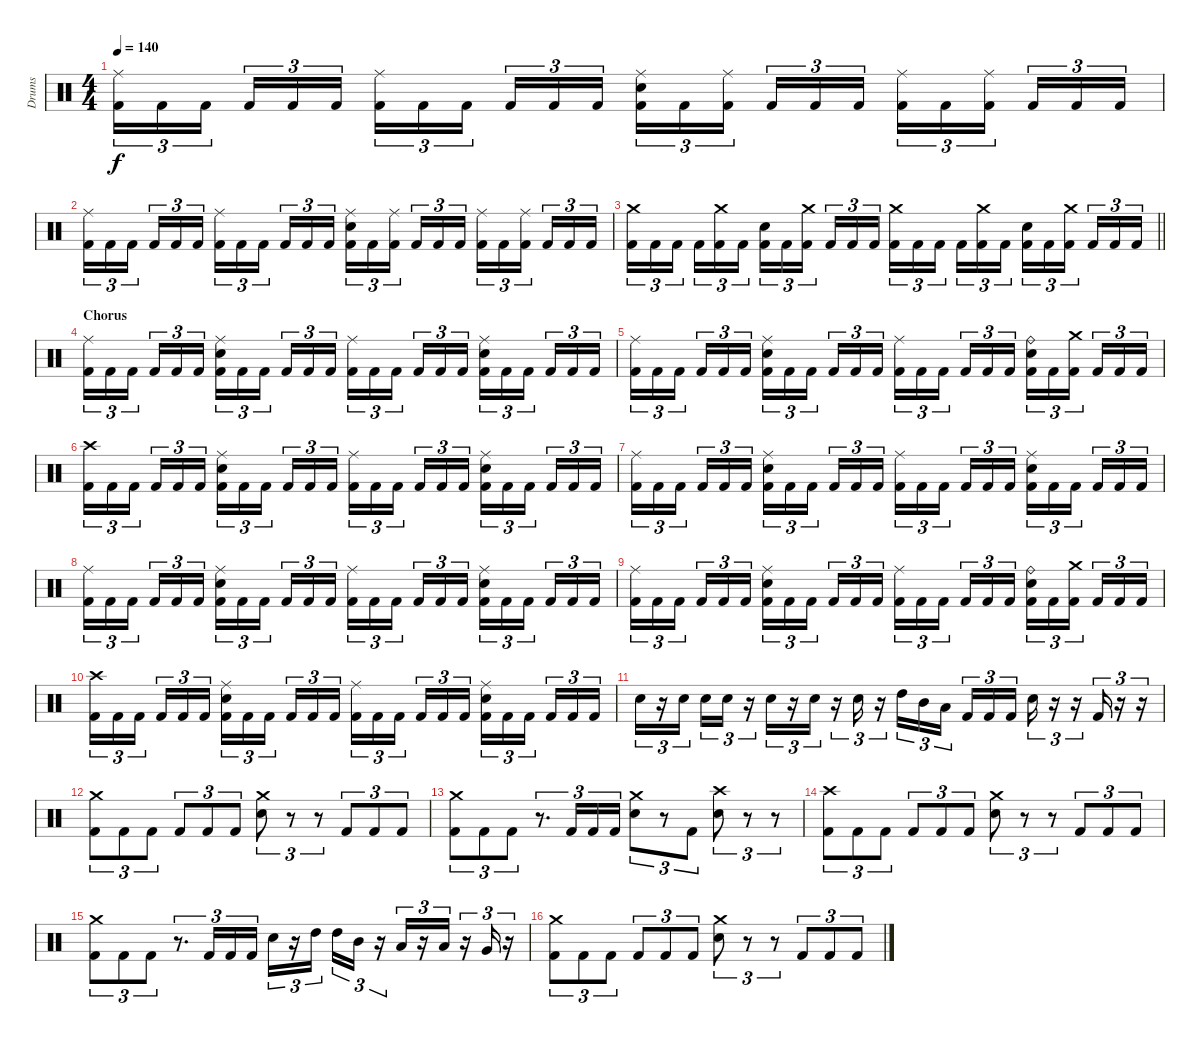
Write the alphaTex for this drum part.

\track ("Drums" "Drums") {instrument percussion}
\staff {score}
\articulation defaults
\ts (4 4)
\tempo 140
\clef neutral
\ks c
("Ride (middle)" "Kick (hit) 2").16{tu (3 2) dy f} "Kick (hit) 2".16{tu (3 2)} "Kick (hit) 2".16{tu (3 2) beam splitsecondary} "Kick (hit) 2".16{tu (3 2)} "Kick (hit) 2".16{tu (3 2)} "Kick (hit) 2".16{tu (3 2)} ("Ride (middle)" "Kick (hit) 2").16{tu (3 2)} "Kick (hit) 2".16{tu (3 2)} "Kick (hit) 2".16{tu (3 2) beam splitsecondary} "Kick (hit) 2".16{tu (3 2)} "Kick (hit) 2".16{tu (3 2)} "Kick (hit) 2".16{tu (3 2)} ("Ride (middle)" "Electric Snare (hit)" "Kick (hit) 2").16{tu (3 2)} "Kick (hit) 2".16{tu (3 2)} ("Ride (middle)" "Kick (hit) 2").16{tu (3 2) beam splitsecondary} "Kick (hit) 2".16{tu (3 2)} "Kick (hit) 2".16{tu (3 2)} "Kick (hit) 2".16{tu (3 2)} ("Ride (middle)" "Kick (hit) 2").16{tu (3 2)} "Kick (hit) 2".16{tu (3 2)} ("Ride (middle)" "Kick (hit) 2").16{tu (3 2) beam splitsecondary} "Kick (hit) 2".16{tu (3 2)} "Kick (hit) 2".16{tu (3 2)} "Kick (hit) 2".16{tu (3 2)} |
("Ride (middle)" "Kick (hit) 2").16{tu (3 2)} "Kick (hit) 2".16{tu (3 2)} "Kick (hit) 2".16{tu (3 2) beam splitsecondary} "Kick (hit) 2".16{tu (3 2)} "Kick (hit) 2".16{tu (3 2)} "Kick (hit) 2".16{tu (3 2)} ("Ride (middle)" "Kick (hit) 2").16{tu (3 2)} "Kick (hit) 2".16{tu (3 2)} "Kick (hit) 2".16{tu (3 2) beam splitsecondary} "Kick (hit) 2".16{tu (3 2)} "Kick (hit) 2".16{tu (3 2)} "Kick (hit) 2".16{tu (3 2)} ("Ride (middle)" "Electric Snare (hit)" "Kick (hit) 2").16{tu (3 2)} "Kick (hit) 2".16{tu (3 2)} ("Ride (middle)" "Kick (hit) 2").16{tu (3 2) beam splitsecondary} "Kick (hit) 2".16{tu (3 2)} "Kick (hit) 2".16{tu (3 2)} "Kick (hit) 2".16{tu (3 2)} ("Ride (middle)" "Kick (hit) 2").16{tu (3 2)} "Kick (hit) 2".16{tu (3 2)} ("Ride (middle)" "Kick (hit) 2").16{tu (3 2) beam splitsecondary} "Kick (hit) 2".16{tu (3 2)} "Kick (hit) 2".16{tu (3 2)} "Kick (hit) 2".16{tu (3 2)} |
\barLineRight lightlight
("Crash medium (hit)" "Kick (hit) 2").16{tu (3 2)} "Kick (hit) 2".16{tu (3 2)} "Kick (hit) 2".16{tu (3 2) beam splitsecondary} "Kick (hit) 2".16{tu (3 2)} ("Crash medium (hit)" "Kick (hit) 2").16{tu (3 2)} "Kick (hit) 2".16{tu (3 2)} ("Electric Snare (hit)" "Kick (hit) 2").16{tu (3 2)} "Kick (hit) 2".16{tu (3 2)} ("Crash medium (hit)" "Kick (hit) 2").16{tu (3 2) beam splitsecondary} "Kick (hit) 2".16{tu (3 2)} "Kick (hit) 2".16{tu (3 2)} "Kick (hit) 2".16{tu (3 2)} ("Crash medium (hit)" "Kick (hit) 2").16{tu (3 2)} "Kick (hit) 2".16{tu (3 2)} "Kick (hit) 2".16{tu (3 2) beam splitsecondary} "Kick (hit) 2".16{tu (3 2)} ("Crash medium (hit)" "Kick (hit) 2").16{tu (3 2)} "Kick (hit) 2".16{tu (3 2)} ("Electric Snare (hit)" "Kick (hit) 2").16{tu (3 2)} "Kick (hit) 2".16{tu (3 2)} ("Crash medium (hit)" "Kick (hit) 2").16{tu (3 2) beam splitsecondary} "Kick (hit) 2".16{tu (3 2)} "Kick (hit) 2".16{tu (3 2)} "Kick (hit) 2".16{tu (3 2)} |
\section ("" "Chorus")
("Ride (middle)" "Kick (hit) 2").16{tu (3 2)} "Kick (hit) 2".16{tu (3 2)} "Kick (hit) 2".16{tu (3 2) beam splitsecondary} "Kick (hit) 2".16{tu (3 2)} "Kick (hit) 2".16{tu (3 2)} "Kick (hit) 2".16{tu (3 2)} ("Ride (middle)" "Electric Snare (hit)" "Kick (hit) 2").16{tu (3 2)} "Kick (hit) 2".16{tu (3 2)} "Kick (hit) 2".16{tu (3 2) beam splitsecondary} "Kick (hit) 2".16{tu (3 2)} "Kick (hit) 2".16{tu (3 2)} "Kick (hit) 2".16{tu (3 2)} ("Ride (middle)" "Kick (hit) 2").16{tu (3 2)} "Kick (hit) 2".16{tu (3 2)} "Kick (hit) 2".16{tu (3 2) beam splitsecondary} "Kick (hit) 2".16{tu (3 2)} "Kick (hit) 2".16{tu (3 2)} "Kick (hit) 2".16{tu (3 2)} ("Ride (middle)" "Electric Snare (hit)" "Kick (hit) 2").16{tu (3 2)} "Kick (hit) 2".16{tu (3 2)} "Kick (hit) 2".16{tu (3 2) beam splitsecondary} "Kick (hit) 2".16{tu (3 2)} "Kick (hit) 2".16{tu (3 2)} "Kick (hit) 2".16{tu (3 2)} |
("Ride (middle)" "Kick (hit) 2").16{tu (3 2)} "Kick (hit) 2".16{tu (3 2)} "Kick (hit) 2".16{tu (3 2) beam splitsecondary} "Kick (hit) 2".16{tu (3 2)} "Kick (hit) 2".16{tu (3 2)} "Kick (hit) 2".16{tu (3 2)} ("Ride (middle)" "Electric Snare (hit)" "Kick (hit) 2").16{tu (3 2)} "Kick (hit) 2".16{tu (3 2)} "Kick (hit) 2".16{tu (3 2) beam splitsecondary} "Kick (hit) 2".16{tu (3 2)} "Kick (hit) 2".16{tu (3 2)} "Kick (hit) 2".16{tu (3 2)} ("Ride (middle)" "Kick (hit) 2").16{tu (3 2)} "Kick (hit) 2".16{tu (3 2)} "Kick (hit) 2".16{tu (3 2) beam splitsecondary} "Kick (hit) 2".16{tu (3 2)} "Kick (hit) 2".16{tu (3 2)} "Kick (hit) 2".16{tu (3 2)} ("Ride (bell)" "Electric Snare (hit)" "Kick (hit) 2").16{tu (3 2)} "Kick (hit) 2".16{tu (3 2)} ("Crash medium (hit)" "Kick (hit) 2").16{tu (3 2) beam splitsecondary} "Kick (hit) 2".16{tu (3 2)} "Kick (hit) 2".16{tu (3 2)} "Kick (hit) 2".16{tu (3 2)} |
("Crash high (hit)" "Kick (hit) 2").16{tu (3 2)} "Kick (hit) 2".16{tu (3 2)} "Kick (hit) 2".16{tu (3 2) beam splitsecondary} "Kick (hit) 2".16{tu (3 2)} "Kick (hit) 2".16{tu (3 2)} "Kick (hit) 2".16{tu (3 2)} ("Ride (middle)" "Electric Snare (hit)" "Kick (hit) 2").16{tu (3 2)} "Kick (hit) 2".16{tu (3 2)} "Kick (hit) 2".16{tu (3 2) beam splitsecondary} "Kick (hit) 2".16{tu (3 2)} "Kick (hit) 2".16{tu (3 2)} "Kick (hit) 2".16{tu (3 2)} ("Ride (middle)" "Kick (hit) 2").16{tu (3 2)} "Kick (hit) 2".16{tu (3 2)} "Kick (hit) 2".16{tu (3 2) beam splitsecondary} "Kick (hit) 2".16{tu (3 2)} "Kick (hit) 2".16{tu (3 2)} "Kick (hit) 2".16{tu (3 2)} ("Ride (middle)" "Electric Snare (hit)" "Kick (hit) 2").16{tu (3 2)} "Kick (hit) 2".16{tu (3 2)} "Kick (hit) 2".16{tu (3 2) beam splitsecondary} "Kick (hit) 2".16{tu (3 2)} "Kick (hit) 2".16{tu (3 2)} "Kick (hit) 2".16{tu (3 2)} |
("Ride (middle)" "Kick (hit) 2").16{tu (3 2)} "Kick (hit) 2".16{tu (3 2)} "Kick (hit) 2".16{tu (3 2) beam splitsecondary} "Kick (hit) 2".16{tu (3 2)} "Kick (hit) 2".16{tu (3 2)} "Kick (hit) 2".16{tu (3 2)} ("Ride (middle)" "Electric Snare (hit)" "Kick (hit) 2").16{tu (3 2)} "Kick (hit) 2".16{tu (3 2)} "Kick (hit) 2".16{tu (3 2) beam splitsecondary} "Kick (hit) 2".16{tu (3 2)} "Kick (hit) 2".16{tu (3 2)} "Kick (hit) 2".16{tu (3 2)} ("Ride (middle)" "Kick (hit) 2").16{tu (3 2)} "Kick (hit) 2".16{tu (3 2)} "Kick (hit) 2".16{tu (3 2) beam splitsecondary} "Kick (hit) 2".16{tu (3 2)} "Kick (hit) 2".16{tu (3 2)} "Kick (hit) 2".16{tu (3 2)} ("Ride (middle)" "Electric Snare (hit)" "Kick (hit) 2").16{tu (3 2)} "Kick (hit) 2".16{tu (3 2)} "Kick (hit) 2".16{tu (3 2) beam splitsecondary} "Kick (hit) 2".16{tu (3 2)} "Kick (hit) 2".16{tu (3 2)} "Kick (hit) 2".16{tu (3 2)} |
("Ride (middle)" "Kick (hit) 2").16{tu (3 2)} "Kick (hit) 2".16{tu (3 2)} "Kick (hit) 2".16{tu (3 2) beam splitsecondary} "Kick (hit) 2".16{tu (3 2)} "Kick (hit) 2".16{tu (3 2)} "Kick (hit) 2".16{tu (3 2)} ("Ride (middle)" "Electric Snare (hit)" "Kick (hit) 2").16{tu (3 2)} "Kick (hit) 2".16{tu (3 2)} "Kick (hit) 2".16{tu (3 2) beam splitsecondary} "Kick (hit) 2".16{tu (3 2)} "Kick (hit) 2".16{tu (3 2)} "Kick (hit) 2".16{tu (3 2)} ("Ride (middle)" "Kick (hit) 2").16{tu (3 2)} "Kick (hit) 2".16{tu (3 2)} "Kick (hit) 2".16{tu (3 2) beam splitsecondary} "Kick (hit) 2".16{tu (3 2)} "Kick (hit) 2".16{tu (3 2)} "Kick (hit) 2".16{tu (3 2)} ("Ride (middle)" "Electric Snare (hit)" "Kick (hit) 2").16{tu (3 2)} "Kick (hit) 2".16{tu (3 2)} "Kick (hit) 2".16{tu (3 2) beam splitsecondary} "Kick (hit) 2".16{tu (3 2)} "Kick (hit) 2".16{tu (3 2)} "Kick (hit) 2".16{tu (3 2)} |
("Ride (middle)" "Kick (hit) 2").16{tu (3 2)} "Kick (hit) 2".16{tu (3 2)} "Kick (hit) 2".16{tu (3 2) beam splitsecondary} "Kick (hit) 2".16{tu (3 2)} "Kick (hit) 2".16{tu (3 2)} "Kick (hit) 2".16{tu (3 2)} ("Ride (middle)" "Electric Snare (hit)" "Kick (hit) 2").16{tu (3 2)} "Kick (hit) 2".16{tu (3 2)} "Kick (hit) 2".16{tu (3 2) beam splitsecondary} "Kick (hit) 2".16{tu (3 2)} "Kick (hit) 2".16{tu (3 2)} "Kick (hit) 2".16{tu (3 2)} ("Ride (middle)" "Kick (hit) 2").16{tu (3 2)} "Kick (hit) 2".16{tu (3 2)} "Kick (hit) 2".16{tu (3 2) beam splitsecondary} "Kick (hit) 2".16{tu (3 2)} "Kick (hit) 2".16{tu (3 2)} "Kick (hit) 2".16{tu (3 2)} ("Ride (bell)" "Electric Snare (hit)" "Kick (hit) 2").16{tu (3 2)} "Kick (hit) 2".16{tu (3 2)} ("Crash medium (hit)" "Kick (hit) 2").16{tu (3 2) beam splitsecondary} "Kick (hit) 2".16{tu (3 2)} "Kick (hit) 2".16{tu (3 2)} "Kick (hit) 2".16{tu (3 2)} |
("Crash high (hit)" "Kick (hit) 2").16{tu (3 2)} "Kick (hit) 2".16{tu (3 2)} "Kick (hit) 2".16{tu (3 2) beam splitsecondary} "Kick (hit) 2".16{tu (3 2)} "Kick (hit) 2".16{tu (3 2)} "Kick (hit) 2".16{tu (3 2)} ("Ride (middle)" "Electric Snare (hit)" "Kick (hit) 2").16{tu (3 2)} "Kick (hit) 2".16{tu (3 2)} "Kick (hit) 2".16{tu (3 2) beam splitsecondary} "Kick (hit) 2".16{tu (3 2)} "Kick (hit) 2".16{tu (3 2)} "Kick (hit) 2".16{tu (3 2)} ("Ride (middle)" "Kick (hit) 2").16{tu (3 2)} "Kick (hit) 2".16{tu (3 2)} "Kick (hit) 2".16{tu (3 2) beam splitsecondary} "Kick (hit) 2".16{tu (3 2)} "Kick (hit) 2".16{tu (3 2)} "Kick (hit) 2".16{tu (3 2)} ("Ride (middle)" "Electric Snare (hit)" "Kick (hit) 2").16{tu (3 2)} "Kick (hit) 2".16{tu (3 2)} "Kick (hit) 2".16{tu (3 2) beam splitsecondary} "Kick (hit) 2".16{tu (3 2)} "Kick (hit) 2".16{tu (3 2)} "Kick (hit) 2".16{tu (3 2)} |
"Electric Snare (hit)".16{tu (3 2)} r.16{tu (3 2)} "Electric Snare (hit)".16{tu (3 2) beam splitsecondary} "Electric Snare (hit)".16{tu (3 2)} "Electric Snare (hit)".16{tu (3 2)} r.16{tu (3 2)} "Electric Snare (hit)".16{tu (3 2)} r.16{tu (3 2)} "Electric Snare (hit)".16{tu (3 2)} r.16{tu (3 2)} "Electric Snare (hit)".16{tu (3 2)} r.16{tu (3 2)} "High Tom (hit)".16{tu (3 2)} "Mid Tom (hit)".16{tu (3 2)} "Low Tom (hit)".16{tu (3 2) beam splitsecondary} "Kick (hit) 2".16{tu (3 2)} "Kick (hit) 2".16{tu (3 2)} "Kick (hit) 2".16{tu (3 2)} "Electric Snare (hit)".16{tu (3 2)} r.16{tu (3 2)} r.16{tu (3 2)} "Kick (hit) 2".16{tu (3 2)} r.16{tu (3 2)} r.16{tu (3 2)} |
("Crash medium (hit)" "Kick (hit) 2").8{tu (3 2)} "Kick (hit) 2".8{tu (3 2)} "Kick (hit) 2".8{tu (3 2)} "Kick (hit) 2".8{tu (3 2)} "Kick (hit) 2".8{tu (3 2)} "Kick (hit) 2".8{tu (3 2)} ("Crash medium (hit)" "Electric Snare (hit)").8{tu (3 2)} r.8{tu (3 2)} r.8{tu (3 2)} "Kick (hit) 2".8{tu (3 2)} "Kick (hit) 2".8{tu (3 2)} "Kick (hit) 2".8{tu (3 2)} |
("Crash medium (hit)" "Kick (hit) 2").8{tu (3 2)} "Kick (hit) 2".8{tu (3 2)} "Kick (hit) 2".8{tu (3 2)} r.8{d tu (3 2)} "Kick (hit) 2".16{tu (3 2)} "Kick (hit) 2".16{tu (3 2)} "Kick (hit) 2".16{tu (3 2)} ("Crash medium (hit)" "Electric Snare (hit)").8{tu (3 2)} r.8{tu (3 2)} "Kick (hit) 2".8{tu (3 2)} ("Crash high (hit)" "Electric Snare (hit)").8{tu (3 2)} r.8{tu (3 2)} r.8{tu (3 2)} |
("Crash high (hit)" "Kick (hit) 2").8{tu (3 2)} "Kick (hit) 2".8{tu (3 2)} "Kick (hit) 2".8{tu (3 2)} "Kick (hit) 2".8{tu (3 2)} "Kick (hit) 2".8{tu (3 2)} "Kick (hit) 2".8{tu (3 2)} ("Crash medium (hit)" "Electric Snare (hit)").8{tu (3 2)} r.8{tu (3 2)} r.8{tu (3 2)} "Kick (hit) 2".8{tu (3 2)} "Kick (hit) 2".8{tu (3 2)} "Kick (hit) 2".8{tu (3 2)} |
("Crash medium (hit)" "Kick (hit) 2").8{tu (3 2)} "Kick (hit) 2".8{tu (3 2)} "Kick (hit) 2".8{tu (3 2)} r.8{d tu (3 2)} "Kick (hit) 2".16{tu (3 2)} "Kick (hit) 2".16{tu (3 2)} "Kick (hit) 2".16{tu (3 2)} "Electric Snare (hit)".16{tu (3 2)} r.16{tu (3 2)} "High Tom (hit)".16{tu (3 2) beam splitsecondary} "High Tom (hit)".16{tu (3 2)} "Mid Tom (hit)".16{tu (3 2)} r.16{tu (3 2)} "Low Tom (hit)".16{tu (3 2)} r.16{tu (3 2)} "Low Tom (hit)".16{tu (3 2)} r.16{tu (3 2)} "Very Low Tom (hit)".16{tu (3 2)} r.16{tu (3 2)} |
("Crash medium (hit)" "Kick (hit) 2").8{tu (3 2)} "Kick (hit) 2".8{tu (3 2)} "Kick (hit) 2".8{tu (3 2)} "Kick (hit) 2".8{tu (3 2)} "Kick (hit) 2".8{tu (3 2)} "Kick (hit) 2".8{tu (3 2)} ("Crash medium (hit)" "Electric Snare (hit)").8{tu (3 2)} r.8{tu (3 2)} r.8{tu (3 2)} "Kick (hit) 2".8{tu (3 2)} "Kick (hit) 2".8{tu (3 2)} "Kick (hit) 2".8{tu (3 2)}
